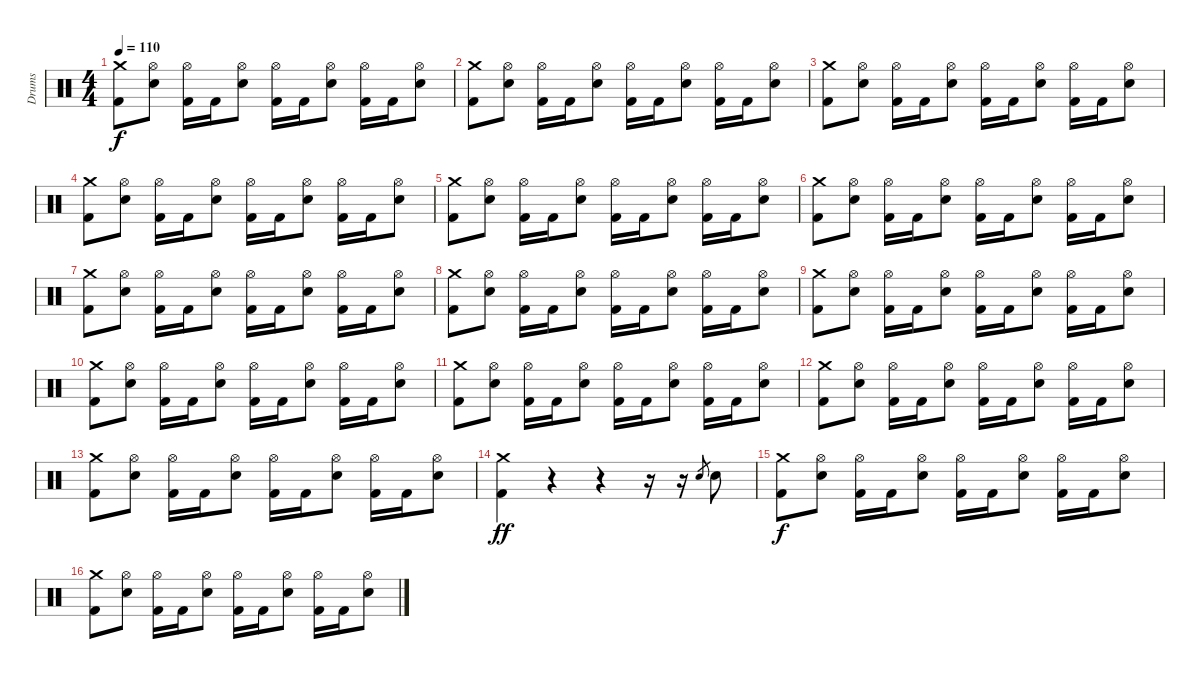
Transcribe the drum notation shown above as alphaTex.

\track ("Drums" "Drums") {instrument percussion}
\staff {score}
\articulation defaults
\ts (4 4)
\tempo 110
\clef neutral
\ks c
("Crash medium (hit)" "Kick (hit) 2").8{dy f} ("Hi-Hat (open)" "Snare (hit) 2").8 ("Hi-Hat (open)" "Kick (hit) 2").16 "Kick (hit) 2".16 ("Hi-Hat (open)" "Snare (hit) 2").8 ("Hi-Hat (open)" "Kick (hit) 2").16 "Kick (hit) 2".16 ("Hi-Hat (open)" "Snare (hit) 2").8 ("Hi-Hat (open)" "Kick (hit) 2").16 "Kick (hit) 2".16 ("Hi-Hat (open)" "Snare (hit) 2").8 |
("Crash medium (hit)" "Kick (hit) 2").8 ("Hi-Hat (open)" "Snare (hit) 2").8 ("Hi-Hat (open)" "Kick (hit) 2").16 "Kick (hit) 2".16 ("Hi-Hat (open)" "Snare (hit) 2").8 ("Hi-Hat (open)" "Kick (hit) 2").16 "Kick (hit) 2".16 ("Hi-Hat (open)" "Snare (hit) 2").8 ("Hi-Hat (open)" "Kick (hit) 2").16 "Kick (hit) 2".16 ("Hi-Hat (open)" "Snare (hit) 2").8 |
("Crash medium (hit)" "Kick (hit) 2").8 ("Hi-Hat (open)" "Snare (hit) 2").8 ("Hi-Hat (open)" "Kick (hit) 2").16 "Kick (hit) 2".16 ("Hi-Hat (open)" "Snare (hit) 2").8 ("Hi-Hat (open)" "Kick (hit) 2").16 "Kick (hit) 2".16 ("Hi-Hat (open)" "Snare (hit) 2").8 ("Hi-Hat (open)" "Kick (hit) 2").16 "Kick (hit) 2".16 ("Hi-Hat (open)" "Snare (hit) 2").8 |
("Crash medium (hit)" "Kick (hit) 2").8 ("Hi-Hat (open)" "Snare (hit) 2").8 ("Hi-Hat (open)" "Kick (hit) 2").16 "Kick (hit) 2".16 ("Hi-Hat (open)" "Snare (hit) 2").8 ("Hi-Hat (open)" "Kick (hit) 2").16 "Kick (hit) 2".16 ("Hi-Hat (open)" "Snare (hit) 2").8 ("Hi-Hat (open)" "Kick (hit) 2").16 "Kick (hit) 2".16 ("Hi-Hat (open)" "Snare (hit) 2").8 |
("Crash medium (hit)" "Kick (hit) 2").8 ("Hi-Hat (open)" "Snare (hit) 2").8 ("Hi-Hat (open)" "Kick (hit) 2").16 "Kick (hit) 2".16 ("Hi-Hat (open)" "Snare (hit) 2").8 ("Hi-Hat (open)" "Kick (hit) 2").16 "Kick (hit) 2".16 ("Hi-Hat (open)" "Snare (hit) 2").8 ("Hi-Hat (open)" "Kick (hit) 2").16 "Kick (hit) 2".16 ("Hi-Hat (open)" "Snare (hit) 2").8 |
("Crash medium (hit)" "Kick (hit) 2").8 ("Hi-Hat (open)" "Snare (hit) 2").8 ("Hi-Hat (open)" "Kick (hit) 2").16 "Kick (hit) 2".16 ("Hi-Hat (open)" "Snare (hit) 2").8 ("Hi-Hat (open)" "Kick (hit) 2").16 "Kick (hit) 2".16 ("Hi-Hat (open)" "Snare (hit) 2").8 ("Hi-Hat (open)" "Kick (hit) 2").16 "Kick (hit) 2".16 ("Hi-Hat (open)" "Snare (hit) 2").8 |
("Crash medium (hit)" "Kick (hit) 2").8 ("Hi-Hat (open)" "Snare (hit) 2").8 ("Hi-Hat (open)" "Kick (hit) 2").16 "Kick (hit) 2".16 ("Hi-Hat (open)" "Snare (hit) 2").8 ("Hi-Hat (open)" "Kick (hit) 2").16 "Kick (hit) 2".16 ("Hi-Hat (open)" "Snare (hit) 2").8 ("Hi-Hat (open)" "Kick (hit) 2").16 "Kick (hit) 2".16 ("Hi-Hat (open)" "Snare (hit) 2").8 |
("Crash medium (hit)" "Kick (hit) 2").8 ("Hi-Hat (open)" "Snare (hit) 2").8 ("Hi-Hat (open)" "Kick (hit) 2").16 "Kick (hit) 2".16 ("Hi-Hat (open)" "Snare (hit) 2").8 ("Hi-Hat (open)" "Kick (hit) 2").16 "Kick (hit) 2".16 ("Hi-Hat (open)" "Snare (hit) 2").8 ("Hi-Hat (open)" "Kick (hit) 2").16 "Kick (hit) 2".16 ("Hi-Hat (open)" "Snare (hit) 2").8 |
("Crash medium (hit)" "Kick (hit) 2").8 ("Hi-Hat (open)" "Snare (hit) 2").8 ("Hi-Hat (open)" "Kick (hit) 2").16 "Kick (hit) 2".16 ("Hi-Hat (open)" "Snare (hit) 2").8 ("Hi-Hat (open)" "Kick (hit) 2").16 "Kick (hit) 2".16 ("Hi-Hat (open)" "Snare (hit) 2").8 ("Hi-Hat (open)" "Kick (hit) 2").16 "Kick (hit) 2".16 ("Hi-Hat (open)" "Snare (hit) 2").8 |
("Crash medium (hit)" "Kick (hit) 2").8 ("Hi-Hat (open)" "Snare (hit) 2").8 ("Hi-Hat (open)" "Kick (hit) 2").16 "Kick (hit) 2".16 ("Hi-Hat (open)" "Snare (hit) 2").8 ("Hi-Hat (open)" "Kick (hit) 2").16 "Kick (hit) 2".16 ("Hi-Hat (open)" "Snare (hit) 2").8 ("Hi-Hat (open)" "Kick (hit) 2").16 "Kick (hit) 2".16 ("Hi-Hat (open)" "Snare (hit) 2").8 |
("Crash medium (hit)" "Kick (hit) 2").8 ("Hi-Hat (open)" "Snare (hit) 2").8 ("Hi-Hat (open)" "Kick (hit) 2").16 "Kick (hit) 2".16 ("Hi-Hat (open)" "Snare (hit) 2").8 ("Hi-Hat (open)" "Kick (hit) 2").16 "Kick (hit) 2".16 ("Hi-Hat (open)" "Snare (hit) 2").8 ("Hi-Hat (open)" "Kick (hit) 2").16 "Kick (hit) 2".16 ("Hi-Hat (open)" "Snare (hit) 2").8 |
("Crash medium (hit)" "Kick (hit) 2").8 ("Hi-Hat (open)" "Snare (hit) 2").8 ("Hi-Hat (open)" "Kick (hit) 2").16 "Kick (hit) 2".16 ("Hi-Hat (open)" "Snare (hit) 2").8 ("Hi-Hat (open)" "Kick (hit) 2").16 "Kick (hit) 2".16 ("Hi-Hat (open)" "Snare (hit) 2").8 ("Hi-Hat (open)" "Kick (hit) 2").16 "Kick (hit) 2".16 ("Hi-Hat (open)" "Snare (hit) 2").8 |
("Crash medium (hit)" "Kick (hit) 2").8 ("Hi-Hat (open)" "Snare (hit) 2").8 ("Hi-Hat (open)" "Kick (hit) 2").16 "Kick (hit) 2".16 ("Hi-Hat (open)" "Snare (hit) 2").8 ("Hi-Hat (open)" "Kick (hit) 2").16 "Kick (hit) 2".16 ("Hi-Hat (open)" "Snare (hit) 2").8 ("Hi-Hat (open)" "Kick (hit) 2").16 "Kick (hit) 2".16 ("Hi-Hat (open)" "Snare (hit) 2").8 |
("Crash medium (hit)" "Kick (hit) 2").4{dy ff} r.4 r.4 r.16 r.16 "Snare (hit) 2".8{gr} "Snare (hit) 2".8 |
("Crash medium (hit)" "Kick (hit) 2").8{dy f} ("Hi-Hat (open)" "Snare (hit) 2").8 ("Hi-Hat (open)" "Kick (hit) 2").16 "Kick (hit) 2".16 ("Hi-Hat (open)" "Snare (hit) 2").8 ("Hi-Hat (open)" "Kick (hit) 2").16 "Kick (hit) 2".16 ("Hi-Hat (open)" "Snare (hit) 2").8 ("Hi-Hat (open)" "Kick (hit) 2").16 "Kick (hit) 2".16 ("Hi-Hat (open)" "Snare (hit) 2").8 |
("Crash medium (hit)" "Kick (hit) 2").8 ("Hi-Hat (open)" "Snare (hit) 2").8 ("Hi-Hat (open)" "Kick (hit) 2").16 "Kick (hit) 2".16 ("Hi-Hat (open)" "Snare (hit) 2").8 ("Hi-Hat (open)" "Kick (hit) 2").16 "Kick (hit) 2".16 ("Hi-Hat (open)" "Snare (hit) 2").8 ("Hi-Hat (open)" "Kick (hit) 2").16 "Kick (hit) 2".16 ("Hi-Hat (open)" "Snare (hit) 2").8
